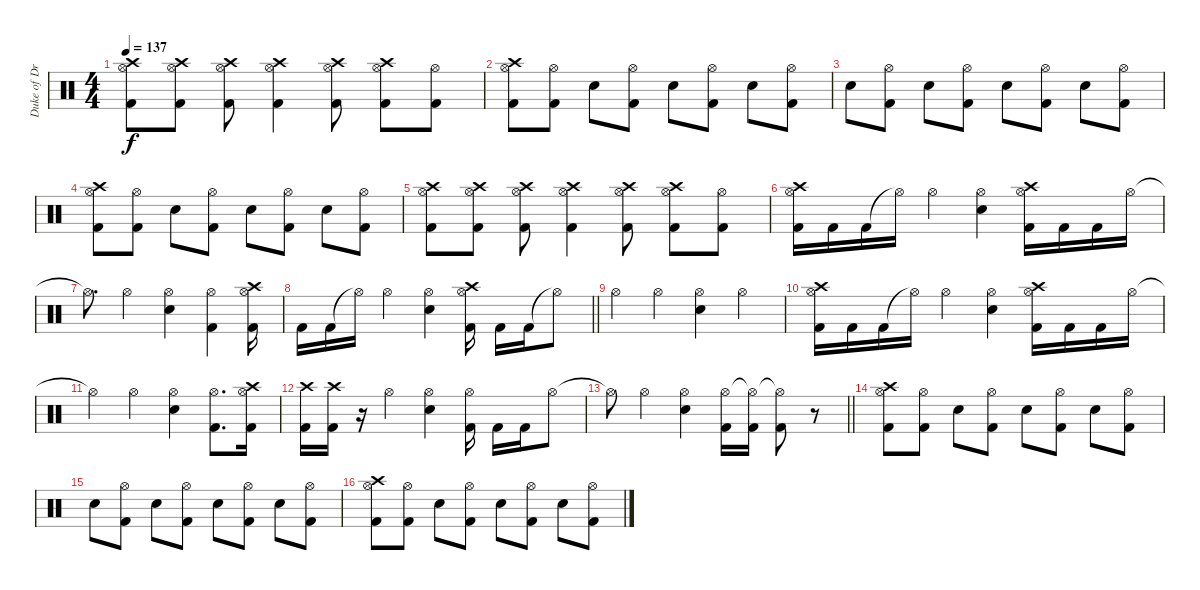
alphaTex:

\track ("Duke of Drumington" "Duke of Dr") {instrument percussion}
\staff {score}
\articulation defaults
\ts (4 4)
\tempo 137
\clef neutral
\ks c
("Hi-Hat (open)" "Crash high (hit)" "Kick (hit) 2").8{dy f} ("Hi-Hat (open)" "Crash high (hit)" "Kick (hit) 2").8 ("Hi-Hat (open)" "Crash high (hit)" "Kick (hit) 2").8 ("Hi-Hat (open)" "Crash high (hit)" "Kick (hit) 2").4 ("Hi-Hat (open)" "Crash high (hit)" "Kick (hit) 2").8 ("Hi-Hat (open)" "Crash high (hit)" "Kick (hit) 2").8 ("Hi-Hat (open)" "Kick (hit) 2").8 |
("Hi-Hat (open)" "Crash high (hit)" "Kick (hit) 2").8 ("Hi-Hat (open)" "Kick (hit) 2").8 "Snare (hit) 2".8 ("Hi-Hat (open)" "Kick (hit) 2").8 "Snare (hit) 2".8 ("Hi-Hat (open)" "Kick (hit) 2").8 "Snare (hit) 2".8 ("Hi-Hat (open)" "Kick (hit) 2").8 |
"Snare (hit) 2".8 ("Hi-Hat (open)" "Kick (hit) 2").8 "Snare (hit) 2".8 ("Hi-Hat (open)" "Kick (hit) 2").8 "Snare (hit) 2".8 ("Hi-Hat (open)" "Kick (hit) 2").8 "Snare (hit) 2".8 ("Hi-Hat (open)" "Kick (hit) 2").8 |
("Hi-Hat (open)" "Crash high (hit)" "Kick (hit) 2").8 ("Hi-Hat (open)" "Kick (hit) 2").8 "Snare (hit) 2".8 ("Hi-Hat (open)" "Kick (hit) 2").8 "Snare (hit) 2".8 ("Hi-Hat (open)" "Kick (hit) 2").8 "Snare (hit) 2".8 ("Hi-Hat (open)" "Kick (hit) 2").8 |
("Hi-Hat (open)" "Crash high (hit)" "Kick (hit) 2").8 ("Hi-Hat (open)" "Crash high (hit)" "Kick (hit) 2").8 ("Hi-Hat (open)" "Crash high (hit)" "Kick (hit) 2").8 ("Hi-Hat (open)" "Crash high (hit)" "Kick (hit) 2").4 ("Hi-Hat (open)" "Crash high (hit)" "Kick (hit) 2").8 ("Hi-Hat (open)" "Crash high (hit)" "Kick (hit) 2").8 ("Hi-Hat (open)" "Kick (hit) 2").8 |
("Crash high (hit)" "Hi-Hat (open)" "Kick (hit) 2").16 "Kick (hit) 2".16 "Kick (hit) 2".16 "Hi-Hat (open)"{t}.16 "Hi-Hat (open)".4 ("Hi-Hat (open)" "Snare (hit) 2").4 ("Crash high (hit)" "Hi-Hat (open)" "Kick (hit) 2").16 "Kick (hit) 2".16 "Kick (hit) 2".16 "Hi-Hat (open)".16 |
"Hi-Hat (open)"{t}.8{d} "Hi-Hat (open)".4 ("Hi-Hat (open)" "Snare (hit) 2").4 ("Hi-Hat (open)" "Kick (hit) 2").4 ("Crash high (hit)" "Hi-Hat (open)" "Kick (hit) 2").16 |
\barLineRight lightlight "Kick (hit) 2".16 "Kick (hit) 2".16 "Hi-Hat (open)"{t}.16 "Hi-Hat (open)".4
("Hi-Hat (open)" "Snare (hit) 2").4 ("Crash high (hit)" "Hi-Hat (open)" "Kick (hit) 2").16 "Kick (hit) 2".16 "Kick (hit) 2".16 "Hi-Hat (open)"{t}.8 |
"Hi-Hat (open)".4 "Hi-Hat (open)".4 ("Hi-Hat (open)" "Snare (hit) 2").4 "Hi-Hat (open)".4 |
("Crash high (hit)" "Hi-Hat (open)" "Kick (hit) 2").16 "Kick (hit) 2".16 "Kick (hit) 2".16 "Hi-Hat (open)"{t}.16 "Hi-Hat (open)".4 ("Hi-Hat (open)" "Snare (hit) 2").4 ("Crash high (hit)" "Hi-Hat (open)" "Kick (hit) 2").16 "Kick (hit) 2".16 "Kick (hit) 2".16 "Hi-Hat (open)".16 |
"Hi-Hat (open)"{t}.4 "Hi-Hat (open)".4 ("Hi-Hat (open)" "Snare (hit) 2").4 ("Hi-Hat (open)" "Kick (hit) 2").8{d} ("Crash high (hit)" "Hi-Hat (open)" "Kick (hit) 2").16 |
("Crash high (hit)" "Kick (hit) 2").16 ("Crash high (hit)" "Kick (hit) 2").16 r.16 "Hi-Hat (open)".4 ("Hi-Hat (open)" "Snare (hit) 2").4 ("Hi-Hat (open)" "Kick (hit) 2").16 "Kick (hit) 2".16 "Kick (hit) 2".16 "Hi-Hat (open)".8 |
\barLineRight lightlight "Hi-Hat (open)"{t}.8 "Hi-Hat (open)".4
("Hi-Hat (open)" "Snare (hit) 2").4 ("Hi-Hat (open)" "Kick (hit) 2").16 ("Hi-Hat (open)"{t} "Kick (hit) 2").16 ("Hi-Hat (open)"{t} "Kick (hit) 2").8 r.8 |
("Hi-Hat (open)" "Crash high (hit)" "Kick (hit) 2").8 ("Hi-Hat (open)" "Kick (hit) 2").8 "Snare (hit) 2".8 ("Hi-Hat (open)" "Kick (hit) 2").8 "Snare (hit) 2".8 ("Hi-Hat (open)" "Kick (hit) 2").8 "Snare (hit) 2".8 ("Hi-Hat (open)" "Kick (hit) 2").8 |
"Snare (hit) 2".8 ("Hi-Hat (open)" "Kick (hit) 2").8 "Snare (hit) 2".8 ("Hi-Hat (open)" "Kick (hit) 2").8 "Snare (hit) 2".8 ("Hi-Hat (open)" "Kick (hit) 2").8 "Snare (hit) 2".8 ("Hi-Hat (open)" "Kick (hit) 2").8 |
("Hi-Hat (open)" "Crash high (hit)" "Kick (hit) 2").8 ("Hi-Hat (open)" "Kick (hit) 2").8 "Snare (hit) 2".8 ("Hi-Hat (open)" "Kick (hit) 2").8 "Snare (hit) 2".8 ("Hi-Hat (open)" "Kick (hit) 2").8 "Snare (hit) 2".8 ("Hi-Hat (open)" "Kick (hit) 2").8
